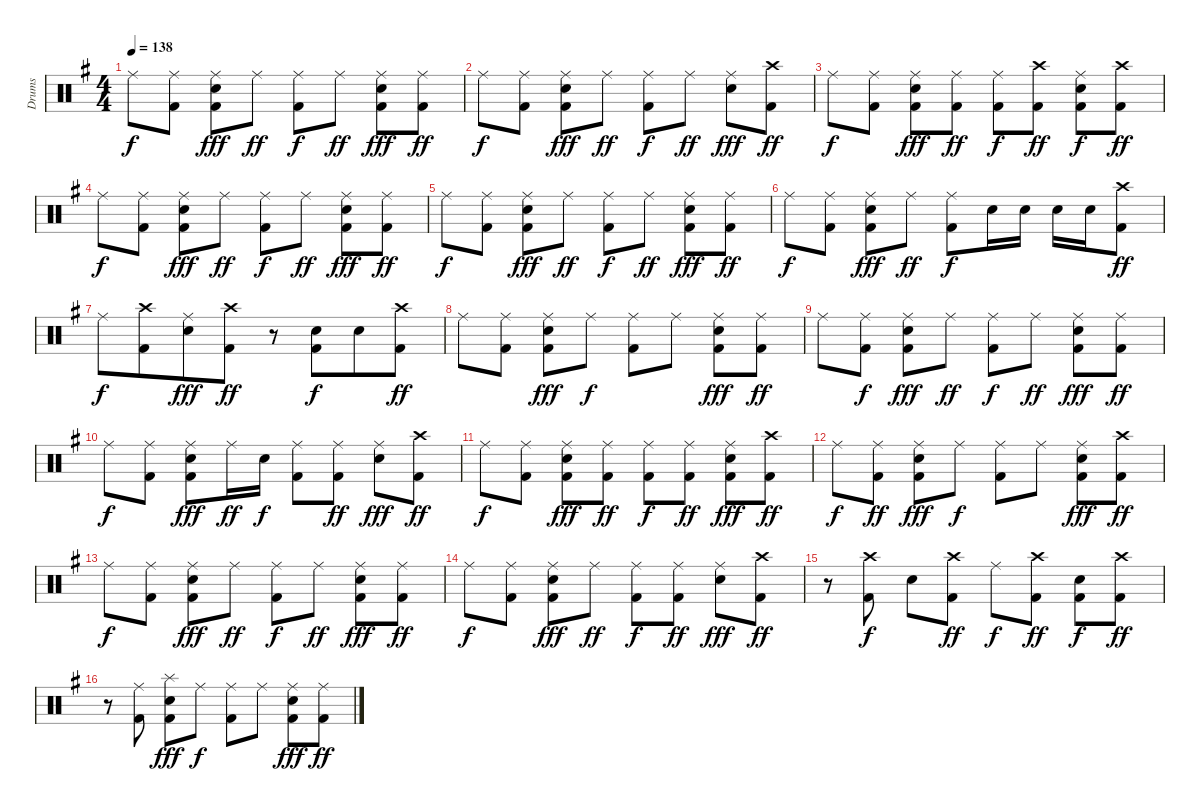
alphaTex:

\track ("Drums" "Drums") {instrument percussion}
\staff {score}
\articulation defaults
\ts (4 4)
\tempo 138
\clef neutral
\ks g "Ride (middle)".8{dy f}
("Ride (middle)" "Kick (hit) 2").8 ("Ride (middle)" "Snare (hit) 2" "Kick (hit) 2").8{dy fff} "Ride (middle)".8{dy ff} ("Ride (middle)" "Kick (hit) 2").8{dy f} "Ride (middle)".8{dy ff} ("Ride (middle)" "Snare (hit) 2" "Kick (hit) 2").8{dy fff} ("Ride (middle)" "Kick (hit) 2").8{dy ff} |
"Ride (middle)".8{dy f} ("Ride (middle)" "Kick (hit) 2").8 ("Ride (middle)" "Snare (hit) 2" "Kick (hit) 2").8{dy fff} "Ride (middle)".8{dy ff} ("Ride (middle)" "Kick (hit) 2").8{dy f} "Ride (middle)".8{dy ff} ("Ride (middle)" "Snare (hit) 2").8{dy fff} ("Crash high (hit)" "Kick (hit) 2").8{dy ff} |
"Ride (middle)".8{dy f} ("Ride (middle)" "Kick (hit) 2").8 ("Ride (middle)" "Snare (hit) 2" "Kick (hit) 2").8{dy fff} ("Ride (middle)" "Kick (hit) 2").8{dy ff} ("Ride (middle)" "Kick (hit) 2").8{dy f} ("Crash high (hit)" "Kick (hit) 2").8{dy ff} ("Ride (middle)" "Snare (hit) 2" "Kick (hit) 2").8{dy f} ("Crash high (hit)" "Kick (hit) 2").8{dy ff} |
"Ride (middle)".8{dy f} ("Ride (middle)" "Kick (hit) 2").8 ("Ride (middle)" "Snare (hit) 2" "Kick (hit) 2").8{dy fff} "Ride (middle)".8{dy ff} ("Ride (middle)" "Kick (hit) 2").8{dy f} "Ride (middle)".8{dy ff} ("Ride (middle)" "Snare (hit) 2" "Kick (hit) 2").8{dy fff} ("Ride (middle)" "Kick (hit) 2").8{dy ff} |
"Ride (middle)".8{dy f} ("Ride (middle)" "Kick (hit) 2").8 ("Ride (middle)" "Snare (hit) 2" "Kick (hit) 2").8{dy fff} "Ride (middle)".8{dy ff} ("Ride (middle)" "Kick (hit) 2").8{dy f} "Ride (middle)".8{dy ff} ("Ride (middle)" "Snare (hit) 2" "Kick (hit) 2").8{dy fff} ("Ride (middle)" "Kick (hit) 2").8{dy ff} |
"Ride (middle)".8{dy f} ("Ride (middle)" "Kick (hit) 2").8 ("Ride (middle)" "Snare (hit) 2" "Kick (hit) 2").8{dy fff} "Ride (middle)".8{dy ff} ("Ride (middle)" "Kick (hit) 2").8{dy f} "Snare (hit) 2".16 "Snare (hit) 2".16 "Snare (hit) 2".16 "Snare (hit) 2".16 ("Crash high (hit)" "Kick (hit) 2").8{dy ff} |
"Ride (middle)".8{dy f} ("Crash high (hit)" "Kick (hit) 2").8{beam merge} ("Ride (middle)" "Snare (hit) 2").8{dy fff} ("Crash high (hit)" "Kick (hit) 2").8{dy ff} r.8 ("Snare (hit) 2" "Kick (hit) 2").8{dy f beam merge} "Snare (hit) 2".8 ("Crash high (hit)" "Kick (hit) 2").8{dy ff} |
"Ride (middle)".8 ("Ride (middle)" "Kick (hit) 2").8 ("Ride (middle)" "Snare (hit) 2" "Kick (hit) 2").8{dy fff} "Ride (middle)".8{dy f} ("Ride (middle)" "Kick (hit) 2").8 "Ride (middle)".8 ("Ride (middle)" "Snare (hit) 2" "Kick (hit) 2").8{dy fff} ("Ride (middle)" "Kick (hit) 2").8{dy ff} |
"Ride (middle)".8 ("Ride (middle)" "Kick (hit) 2").8{dy f} ("Ride (middle)" "Snare (hit) 2" "Kick (hit) 2").8{dy fff} "Ride (middle)".8{dy ff} ("Ride (middle)" "Kick (hit) 2").8{dy f} "Ride (middle)".8{dy ff} ("Ride (middle)" "Snare (hit) 2" "Kick (hit) 2").8{dy fff} ("Ride (middle)" "Kick (hit) 2").8{dy ff} |
"Ride (middle)".8{dy f} ("Ride (middle)" "Kick (hit) 2").8 ("Ride (middle)" "Snare (hit) 2" "Kick (hit) 2").8{dy fff} "Ride (middle)".16{dy ff} "Snare (hit) 2".16{dy f} ("Ride (middle)" "Kick (hit) 2").8 ("Ride (middle)" "Kick (hit) 2").8{dy ff} ("Ride (middle)" "Snare (hit) 2").8{dy fff} ("Crash high (hit)" "Kick (hit) 2").8{dy ff} |
"Ride (middle)".8{dy f} ("Ride (middle)" "Kick (hit) 2").8 ("Ride (middle)" "Snare (hit) 2" "Kick (hit) 2").8{dy fff} ("Ride (middle)" "Kick (hit) 2").8{dy ff} ("Ride (middle)" "Kick (hit) 2").8{dy f} ("Ride (middle)" "Kick (hit) 2").8{dy ff} ("Ride (middle)" "Snare (hit) 2" "Kick (hit) 2").8{dy fff} ("Crash high (hit)" "Kick (hit) 2").8{dy ff} |
"Ride (middle)".8{dy f} ("Ride (middle)" "Kick (hit) 2").8{dy ff} ("Ride (middle)" "Snare (hit) 2" "Kick (hit) 2").8{dy fff} "Ride (middle)".8{dy f} ("Ride (middle)" "Kick (hit) 2").8 "Ride (middle)".8 ("Ride (middle)" "Snare (hit) 2" "Kick (hit) 2").8{dy fff} ("Crash high (hit)" "Kick (hit) 2").8{dy ff} |
"Ride (middle)".8{dy f} ("Ride (middle)" "Kick (hit) 2").8 ("Ride (middle)" "Snare (hit) 2" "Kick (hit) 2").8{dy fff} "Ride (middle)".8{dy ff} ("Ride (middle)" "Kick (hit) 2").8{dy f} "Ride (middle)".8{dy ff} ("Ride (middle)" "Snare (hit) 2" "Kick (hit) 2").8{dy fff} ("Ride (middle)" "Kick (hit) 2").8{dy ff} |
"Ride (middle)".8{dy f} ("Ride (middle)" "Kick (hit) 2").8 ("Ride (middle)" "Snare (hit) 2" "Kick (hit) 2").8{dy fff} "Ride (middle)".8{dy ff} ("Ride (middle)" "Kick (hit) 2").8{dy f} ("Ride (middle)" "Kick (hit) 2").8{dy ff} ("Ride (middle)" "Snare (hit) 2").8{dy fff} ("Crash high (hit)" "Kick (hit) 2").8{dy ff} |
r.8 ("Crash high (hit)" "Kick (hit) 2").8{dy f} "Snare (hit) 2".8 ("Crash high (hit)" "Kick (hit) 2").8{dy ff} "Ride (middle)".8{dy f} ("Crash high (hit)" "Kick (hit) 2").8{dy ff} ("Snare (hit) 2" "Kick (hit) 2").8{dy f} ("Crash high (hit)" "Kick (hit) 2").8{dy ff} |
r.8 ("Ride (middle)" "Kick (hit) 2").8 ("Splash (hit)" "Snare (hit) 2" "Kick (hit) 2").8{dy fff} "Ride (middle)".8{dy f} ("Ride (middle)" "Kick (hit) 2").8 "Ride (middle)".8 ("Ride (middle)" "Snare (hit) 2" "Kick (hit) 2").8{dy fff} ("Ride (middle)" "Kick (hit) 2").8{dy ff}
